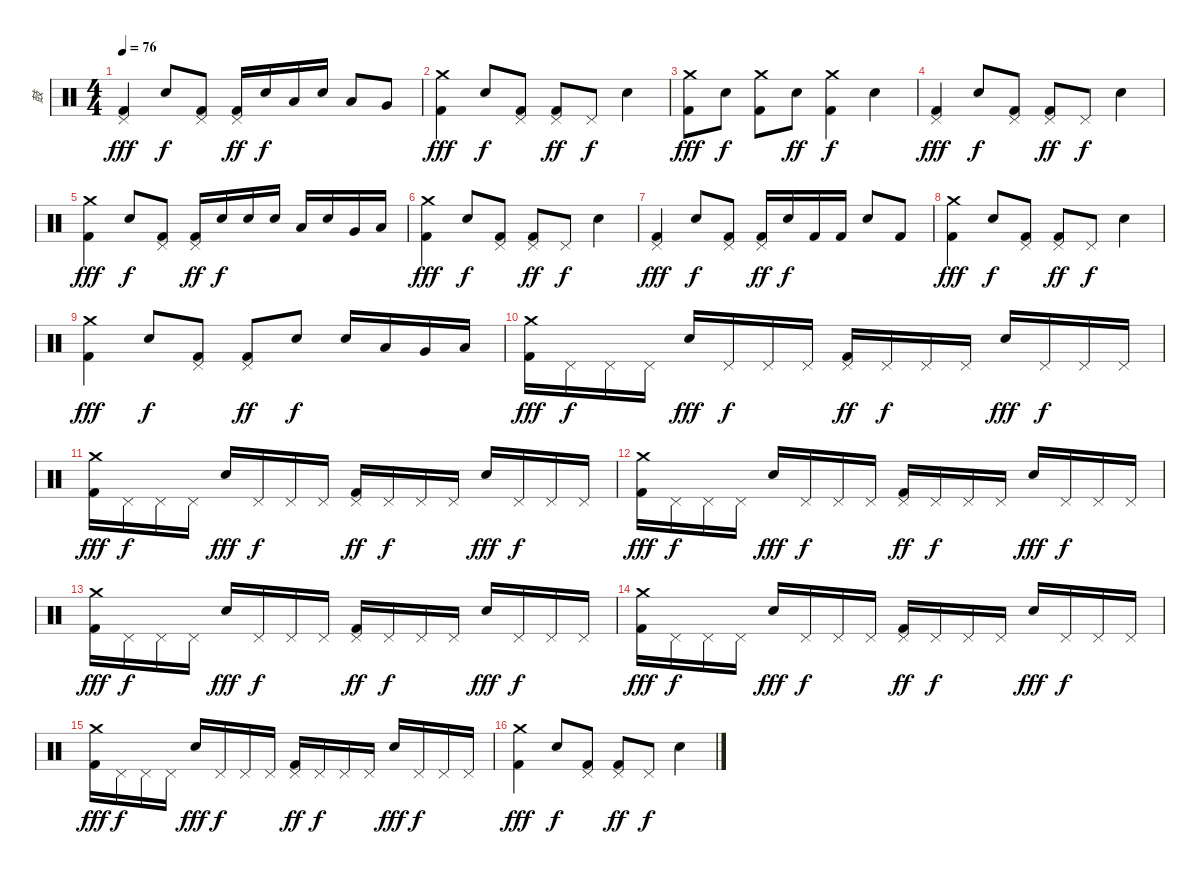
\track ("鼓" "鼓") {instrument percussion}
\staff {score}
\articulation defaults
\ts (4 4)
\tempo 76
\clef neutral
\ks c
("Kick (hit) 2" "Pedal Hi-Hat (hit)").4{dy fff} "Electric Snare (hit)".8{dy f} ("Kick (hit) 2" "Pedal Hi-Hat (hit)").8 ("Kick (hit) 2" "Pedal Hi-Hat (hit)").16{dy ff} "Electric Snare (hit)".16{dy f} "Low Tom (hit)".16 "Electric Snare (hit)".16 "Low Tom (hit)".8 "Very Low Tom (hit)".8 |
("Kick (hit) 2" "Crash medium (hit)").4{dy fff} "Electric Snare (hit)".8{dy f} ("Kick (hit) 2" "Pedal Hi-Hat (hit)").8 ("Kick (hit) 2" "Pedal Hi-Hat (hit)").8{dy ff} "Pedal Hi-Hat (hit)".8{dy f} "Electric Snare (hit)".4 |
("Kick (hit) 2" "Crash medium (hit)").8{dy fff} "Electric Snare (hit)".8{dy f} ("Kick (hit) 2" "Crash medium (hit)").8 "Electric Snare (hit)".8{dy ff} ("Kick (hit) 2" "Crash medium (hit)").4{dy f} "Electric Snare (hit)".4 |
("Kick (hit) 2" "Pedal Hi-Hat (hit)").4{dy fff} "Electric Snare (hit)".8{dy f} ("Kick (hit) 2" "Pedal Hi-Hat (hit)").8 ("Kick (hit) 2" "Pedal Hi-Hat (hit)").8{dy ff} "Pedal Hi-Hat (hit)".8{dy f} "Electric Snare (hit)".4 |
("Kick (hit) 2" "Crash medium (hit)").4{dy fff} "Electric Snare (hit)".8{dy f} ("Kick (hit) 2" "Pedal Hi-Hat (hit)").8 ("Kick (hit) 2" "Pedal Hi-Hat (hit)").16{dy ff} "Electric Snare (hit)".16{dy f} "Electric Snare (hit)".16 "Electric Snare (hit)".16 "Low Tom (hit)".16 "Electric Snare (hit)".16 "Very Low Tom (hit)".16 "Low Floor Tom (hit)".16 |
("Kick (hit) 2" "Crash medium (hit)").4{dy fff} "Electric Snare (hit)".8{dy f} ("Kick (hit) 2" "Pedal Hi-Hat (hit)").8 ("Kick (hit) 2" "Pedal Hi-Hat (hit)").8{dy ff} "Pedal Hi-Hat (hit)".8{dy f} "Electric Snare (hit)".4 |
("Kick (hit) 2" "Pedal Hi-Hat (hit)").4{dy fff} "Electric Snare (hit)".8{dy f} ("Kick (hit) 2" "Pedal Hi-Hat (hit)").8 ("Kick (hit) 2" "Pedal Hi-Hat (hit)").16{dy ff} "Electric Snare (hit)".16{dy f} "Kick (hit) 2".16 "Kick (hit) 2".16 "Electric Snare (hit)".8 "Kick (hit) 2".8 |
("Kick (hit) 2" "Crash medium (hit)").4{dy fff} "Electric Snare (hit)".8{dy f} ("Kick (hit) 2" "Pedal Hi-Hat (hit)").8 ("Kick (hit) 2" "Pedal Hi-Hat (hit)").8{dy ff} "Pedal Hi-Hat (hit)".8{dy f} "Electric Snare (hit)".4 |
("Kick (hit) 2" "Crash medium (hit)").4{dy fff} "Electric Snare (hit)".8{dy f} ("Kick (hit) 2" "Pedal Hi-Hat (hit)").8 ("Kick (hit) 2" "Pedal Hi-Hat (hit)").8{dy ff} "Electric Snare (hit)".8{dy f} "Electric Snare (hit)".16 "Low Tom (hit)".16 "Very Low Tom (hit)".16 "Low Floor Tom (hit)".16 |
("Kick (hit) 2" "Crash medium (hit)").16{dy fff} "Pedal Hi-Hat (hit)".16{dy f} "Pedal Hi-Hat (hit)".16 "Pedal Hi-Hat (hit)".16 "Electric Snare (hit)".16{dy fff} "Pedal Hi-Hat (hit)".16{dy f} "Pedal Hi-Hat (hit)".16 "Pedal Hi-Hat (hit)".16 ("Kick (hit) 2" "Pedal Hi-Hat (hit)").16{dy ff} "Pedal Hi-Hat (hit)".16{dy f} "Pedal Hi-Hat (hit)".16 "Pedal Hi-Hat (hit)".16 "Electric Snare (hit)".16{dy fff} "Pedal Hi-Hat (hit)".16{dy f} "Pedal Hi-Hat (hit)".16 "Pedal Hi-Hat (hit)".16 |
("Kick (hit) 2" "Crash medium (hit)").16{dy fff} "Pedal Hi-Hat (hit)".16{dy f} "Pedal Hi-Hat (hit)".16 "Pedal Hi-Hat (hit)".16 "Electric Snare (hit)".16{dy fff} "Pedal Hi-Hat (hit)".16{dy f} "Pedal Hi-Hat (hit)".16 "Pedal Hi-Hat (hit)".16 ("Kick (hit) 2" "Pedal Hi-Hat (hit)").16{dy ff} "Pedal Hi-Hat (hit)".16{dy f} "Pedal Hi-Hat (hit)".16 "Pedal Hi-Hat (hit)".16 "Electric Snare (hit)".16{dy fff} "Pedal Hi-Hat (hit)".16{dy f} "Pedal Hi-Hat (hit)".16 "Pedal Hi-Hat (hit)".16 |
("Kick (hit) 2" "Crash medium (hit)").16{dy fff} "Pedal Hi-Hat (hit)".16{dy f} "Pedal Hi-Hat (hit)".16 "Pedal Hi-Hat (hit)".16 "Electric Snare (hit)".16{dy fff} "Pedal Hi-Hat (hit)".16{dy f} "Pedal Hi-Hat (hit)".16 "Pedal Hi-Hat (hit)".16 ("Kick (hit) 2" "Pedal Hi-Hat (hit)").16{dy ff} "Pedal Hi-Hat (hit)".16{dy f} "Pedal Hi-Hat (hit)".16 "Pedal Hi-Hat (hit)".16 "Electric Snare (hit)".16{dy fff} "Pedal Hi-Hat (hit)".16{dy f} "Pedal Hi-Hat (hit)".16 "Pedal Hi-Hat (hit)".16 |
("Kick (hit) 2" "Crash medium (hit)").16{dy fff} "Pedal Hi-Hat (hit)".16{dy f} "Pedal Hi-Hat (hit)".16 "Pedal Hi-Hat (hit)".16 "Electric Snare (hit)".16{dy fff} "Pedal Hi-Hat (hit)".16{dy f} "Pedal Hi-Hat (hit)".16 "Pedal Hi-Hat (hit)".16 ("Kick (hit) 2" "Pedal Hi-Hat (hit)").16{dy ff} "Pedal Hi-Hat (hit)".16{dy f} "Pedal Hi-Hat (hit)".16 "Pedal Hi-Hat (hit)".16 "Electric Snare (hit)".16{dy fff} "Pedal Hi-Hat (hit)".16{dy f} "Pedal Hi-Hat (hit)".16 "Pedal Hi-Hat (hit)".16 |
("Kick (hit) 2" "Crash medium (hit)").16{dy fff} "Pedal Hi-Hat (hit)".16{dy f} "Pedal Hi-Hat (hit)".16 "Pedal Hi-Hat (hit)".16 "Electric Snare (hit)".16{dy fff} "Pedal Hi-Hat (hit)".16{dy f} "Pedal Hi-Hat (hit)".16 "Pedal Hi-Hat (hit)".16 ("Kick (hit) 2" "Pedal Hi-Hat (hit)").16{dy ff} "Pedal Hi-Hat (hit)".16{dy f} "Pedal Hi-Hat (hit)".16 "Pedal Hi-Hat (hit)".16 "Electric Snare (hit)".16{dy fff} "Pedal Hi-Hat (hit)".16{dy f} "Pedal Hi-Hat (hit)".16 "Pedal Hi-Hat (hit)".16 |
("Kick (hit) 2" "Crash medium (hit)").16{dy fff} "Pedal Hi-Hat (hit)".16{dy f} "Pedal Hi-Hat (hit)".16 "Pedal Hi-Hat (hit)".16 "Electric Snare (hit)".16{dy fff} "Pedal Hi-Hat (hit)".16{dy f} "Pedal Hi-Hat (hit)".16 "Pedal Hi-Hat (hit)".16 ("Kick (hit) 2" "Pedal Hi-Hat (hit)").16{dy ff} "Pedal Hi-Hat (hit)".16{dy f} "Pedal Hi-Hat (hit)".16 "Pedal Hi-Hat (hit)".16 "Electric Snare (hit)".16{dy fff} "Pedal Hi-Hat (hit)".16{dy f} "Pedal Hi-Hat (hit)".16 "Pedal Hi-Hat (hit)".16 |
("Kick (hit) 2" "Crash medium (hit)").4{dy fff} "Electric Snare (hit)".8{dy f} ("Kick (hit) 2" "Pedal Hi-Hat (hit)").8 ("Kick (hit) 2" "Pedal Hi-Hat (hit)").8{dy ff} "Pedal Hi-Hat (hit)".8{dy f} "Electric Snare (hit)".4
